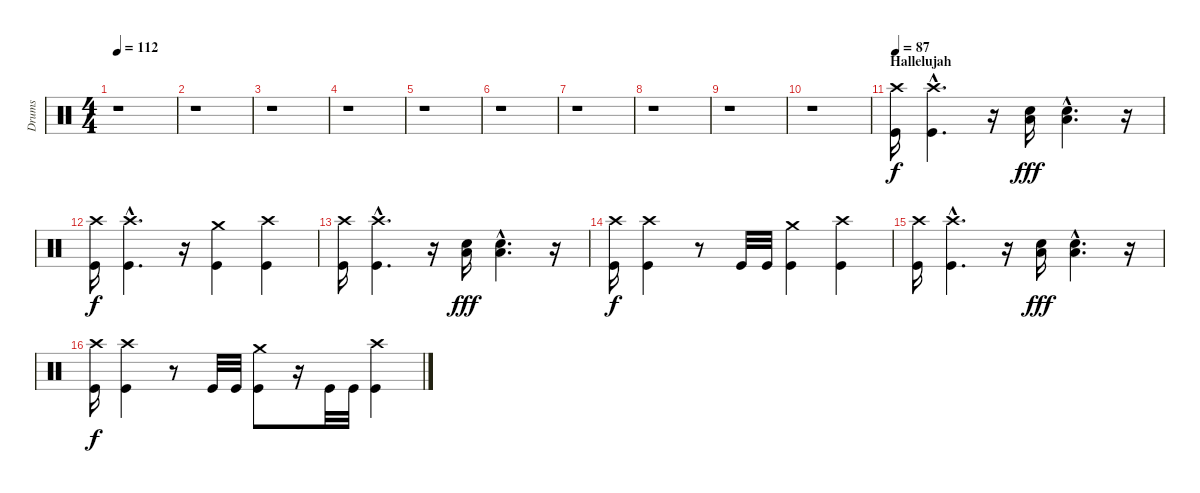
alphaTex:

\track ("Drums" "Drums") {instrument percussion}
\staff {score}
\articulation defaults
\ts (4 4)
\tempo 112
\clef neutral
\ks c
r.1{dy f} |
r.1 |
r.1 |
r.1 |
r.1 |
r.1 |
r.1 |
r.1 |
r.1 |
r.1 |
\section ("" "Hallelujah")
\tempo 87
("Crash high (hit)" "Kick (hit)").16 ("Crash high (hit)"{hac} "Kick (hit)"{hac}).4{d} r.16 ("Low Floor Tom (hit)" "Electric Snare (hit)").16{dy fff} ("Low Floor Tom (hit)"{hac} "Electric Snare (hit)"{hac}).4{d} r.16 |
("Crash high (hit)" "Kick (hit)").16{dy f} ("Crash high (hit)"{hac} "Kick (hit)"{hac}).4{d} r.16 ("Crash medium (hit)" "Kick (hit)").4 ("Crash high (hit)" "Kick (hit)").4 |
("Crash high (hit)" "Kick (hit)").16 ("Crash high (hit)"{hac} "Kick (hit)"{hac}).4{d} r.16 ("Low Floor Tom (hit)" "Electric Snare (hit)").16{dy fff} ("Low Floor Tom (hit)"{hac} "Electric Snare (hit)"{hac}).4{d} r.16 |
("Crash high (hit)" "Kick (hit)").16{dy f} ("Crash high (hit)" "Kick (hit)").4 r.8 "Kick (hit)".32 "Kick (hit)".32 ("Crash medium (hit)" "Kick (hit)").4 ("Crash high (hit)" "Kick (hit)").4 |
("Crash high (hit)" "Kick (hit)").16 ("Crash high (hit)"{hac} "Kick (hit)"{hac}).4{d} r.16 ("Low Floor Tom (hit)" "Electric Snare (hit)").16{dy fff} ("Low Floor Tom (hit)"{hac} "Electric Snare (hit)"{hac}).4{d} r.16 |
("Crash high (hit)" "Kick (hit)").16{dy f} ("Crash high (hit)" "Kick (hit)").4 r.8 "Kick (hit)".32 "Kick (hit)".32 ("Crash medium (hit)" "Kick (hit)").8 r.16 "Kick (hit)".32 "Kick (hit)".32 ("Crash high (hit)" "Kick (hit)").4
